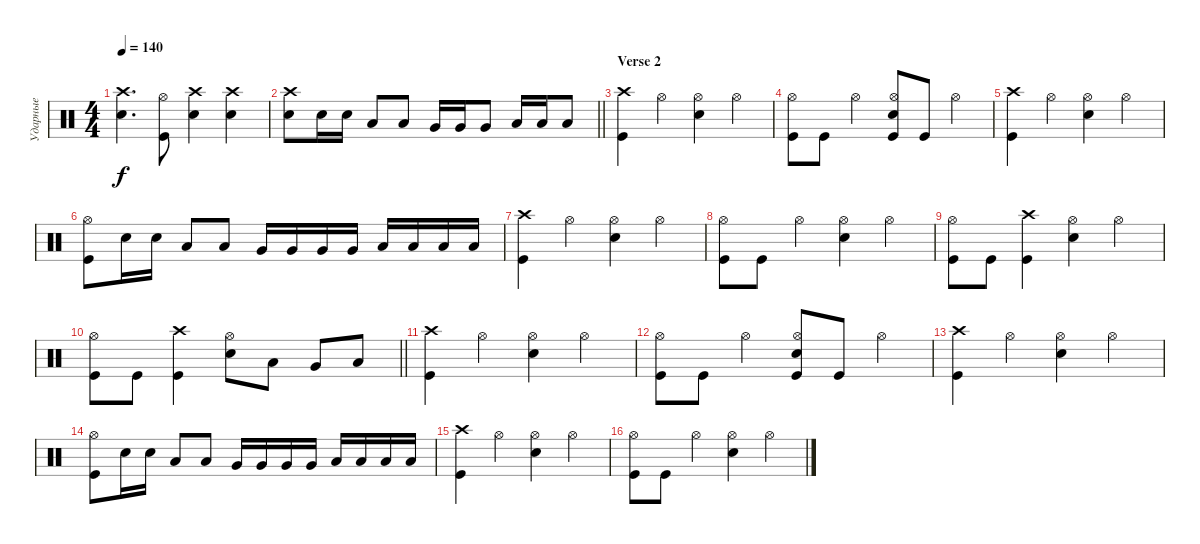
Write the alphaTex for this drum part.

\track ("Ударные" "Ударные") {instrument percussion}
\staff {score}
\articulation defaults
\ts (4 4)
\tempo 140
\clef neutral
\ks c
("Crash high (hit)" "Snare (hit) 2").4{d dy f} ("Hi-Hat (open)" "Kick (hit)").8 ("Crash high (hit)" "Snare (hit) 2").4 ("Crash high (hit)" "Snare (hit) 2").4 |
\barLineRight lightlight
("Crash high (hit)" "Snare (hit) 2").8 "Snare (hit) 2".16 "Snare (hit) 2".16 "Low Tom (hit)".8 "Low Tom (hit)".8 "Very Low Tom (hit)".16 "Very Low Tom (hit)".16 "Very Low Tom (hit)".8 "Low Floor Tom (hit)".16 "Low Floor Tom (hit)".16 "Low Floor Tom (hit)".8 |
\section ("" "Verse 2")
("Crash high (hit)" "Kick (hit)").4 "Hi-Hat (open)".4 ("Hi-Hat (open)" "Snare (hit) 2").4 "Hi-Hat (open)".4 |
("Hi-Hat (open)" "Kick (hit)").8 "Kick (hit)".8 "Hi-Hat (open)".4 ("Snare (hit) 2" "Kick (hit)" "Hi-Hat (open)").8 "Kick (hit)".8 "Hi-Hat (open)".4 |
("Crash high (hit)" "Kick (hit)").4 "Hi-Hat (open)".4 ("Hi-Hat (open)" "Snare (hit) 2").4 "Hi-Hat (open)".4 |
("Hi-Hat (open)" "Kick (hit)").8 "Snare (hit) 2".16 "Snare (hit) 2".16 "Low Tom (hit)".8 "Low Tom (hit)".8 "Very Low Tom (hit)".16 "Very Low Tom (hit)".16 "Very Low Tom (hit)".16 "Very Low Tom (hit)".16 "Low Floor Tom (hit)".16 "Low Floor Tom (hit)".16 "Low Floor Tom (hit)".16 "Low Floor Tom (hit)".16 |
("Crash high (hit)" "Kick (hit)").4 "Hi-Hat (open)".4 ("Hi-Hat (open)" "Snare (hit) 2").4 "Hi-Hat (open)".4 |
("Hi-Hat (open)" "Kick (hit)").8 "Kick (hit)".8 "Hi-Hat (open)".4 ("Snare (hit) 2" "Hi-Hat (open)").4 "Hi-Hat (open)".4 |
("Kick (hit)" "Hi-Hat (open)").8 "Kick (hit)".8 ("Kick (hit)" "Crash high (hit)").4 ("Snare (hit) 2" "Hi-Hat (open)").4 "Hi-Hat (open)".4 |
\barLineRight lightlight
("Kick (hit)" "Hi-Hat (open)").8 "Kick (hit)".8 ("Kick (hit)" "Crash high (hit)").4 ("Snare (hit) 2" "Hi-Hat (open)").8 "Low Tom (hit)".8 "Very Low Tom (hit)".8 "Low Floor Tom (hit)".8 |
("Crash high (hit)" "Kick (hit)").4 "Hi-Hat (open)".4 ("Hi-Hat (open)" "Snare (hit) 2").4 "Hi-Hat (open)".4 |
("Hi-Hat (open)" "Kick (hit)").8 "Kick (hit)".8 "Hi-Hat (open)".4 ("Snare (hit) 2" "Kick (hit)" "Hi-Hat (open)").8 "Kick (hit)".8 "Hi-Hat (open)".4 |
("Crash high (hit)" "Kick (hit)").4 "Hi-Hat (open)".4 ("Hi-Hat (open)" "Snare (hit) 2").4 "Hi-Hat (open)".4 |
("Hi-Hat (open)" "Kick (hit)").8 "Snare (hit) 2".16 "Snare (hit) 2".16 "Low Tom (hit)".8 "Low Tom (hit)".8 "Very Low Tom (hit)".16 "Very Low Tom (hit)".16 "Very Low Tom (hit)".16 "Very Low Tom (hit)".16 "Low Floor Tom (hit)".16 "Low Floor Tom (hit)".16 "Low Floor Tom (hit)".16 "Low Floor Tom (hit)".16 |
("Crash high (hit)" "Kick (hit)").4 "Hi-Hat (open)".4 ("Hi-Hat (open)" "Snare (hit) 2").4 "Hi-Hat (open)".4 |
("Hi-Hat (open)" "Kick (hit)").8 "Kick (hit)".8 "Hi-Hat (open)".4 ("Snare (hit) 2" "Hi-Hat (open)").4 "Hi-Hat (open)".4
